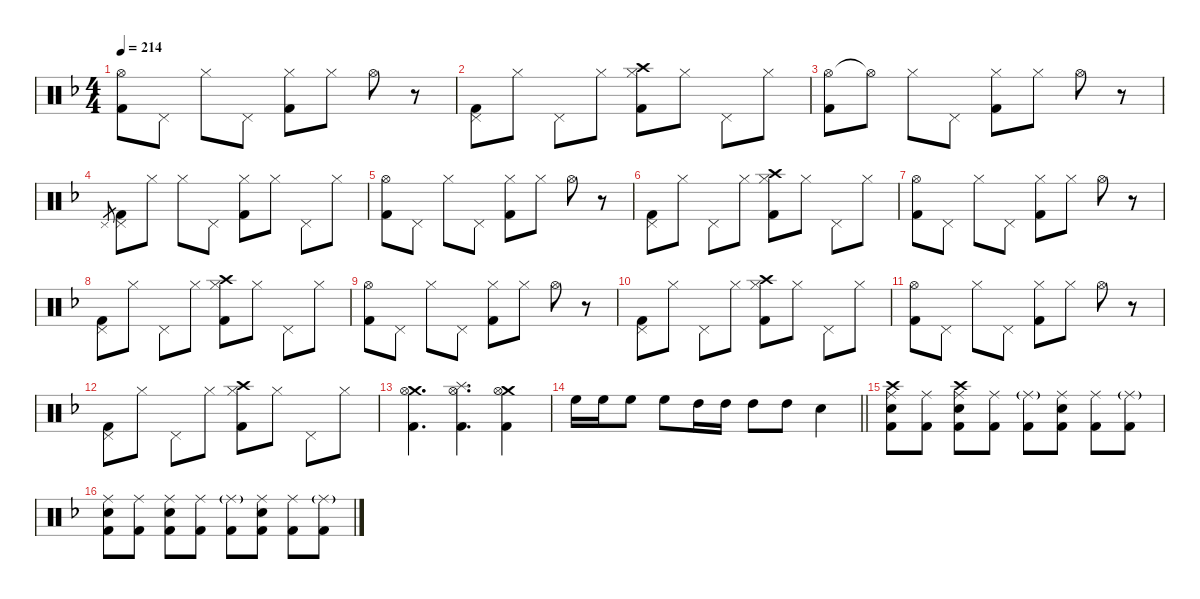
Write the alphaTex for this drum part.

\hideDynamics
\bracketExtendMode nobrackets
\singleTrackTrackNamePolicy hidden
\multiTrackTrackNamePolicy hidden
\firstSystemTrackNameMode fullname
\firstSystemTrackNameOrientation horizontal
\otherSystemsTrackNameOrientation horizontal
\track ("Drumkit" "Drums") {defaultSystemsLayout 4 instrument percussion}
\staff {score}
\articulation defaults
\ts (4 4)
\tempo 214
\clef neutral
\ks dminor
("Hi-Hat (open)"{acc forcenatural} "Kick (hit) 2"{acc forcenatural}).8{dy p beam Down} "Pedal Hi-Hat (hit)"{acc forcenatural}.8{beam Down} "Hi-Hat (closed)"{acc forcenatural}.8{dy mp beam Down} "Pedal Hi-Hat (hit)"{acc forcenatural}.8{beam Down} ("Hi-Hat (closed)"{acc forcenatural} "Kick (hit) 2"{acc forcenatural}).8{beam Down} "Hi-Hat (closed)"{acc forcenatural}.8{beam Down} "Hi-Hat (open)"{acc forcenatural}.8{beam Down} r.8{beam Down} |
("Pedal Hi-Hat (hit)"{acc forcenatural} "Kick (hit) 2"{acc forcenatural}).8{beam Down} "Hi-Hat (closed)"{acc forcenatural}.8{dy p beam Down} "Pedal Hi-Hat (hit)"{acc forcenatural}.8{dy mp beam Down} "Hi-Hat (closed)"{acc forcenatural}.8{beam Down} ("Crash high (hit)"{acc forcenatural} "Hi-Hat (closed)"{acc forcenatural} "Kick (hit) 2"{acc forcenatural}).8{beam Down} "Hi-Hat (closed)"{acc forcenatural}.8{beam Down} "Pedal Hi-Hat (hit)"{acc forcenatural}.8{dy p beam Down} "Hi-Hat (closed)"{acc forcenatural}.8{beam Down} |
("Hi-Hat (open)"{acc forcenatural} "Kick (hit) 2"{acc forcenatural}).8{beam Down} "Hi-Hat (open)"{t acc forcenatural}.8{beam Down} "Hi-Hat (closed)"{acc forcenatural}.8{dy mp beam Down} "Pedal Hi-Hat (hit)"{acc forcenatural}.8{beam Down} ("Hi-Hat (closed)"{acc forcenatural} "Kick (hit) 2"{acc forcenatural}).8{beam Down} "Hi-Hat (closed)"{acc forcenatural}.8{beam Down} "Hi-Hat (open)"{acc forcenatural}.8{beam Down} r.8{beam Down} |
"Pedal Hi-Hat (hit)"{acc forcenatural}.8{gr dy p beam Up} ("Pedal Hi-Hat (hit)"{acc forcenatural} "Kick (hit) 2"{acc forcenatural}).8{beam Down} "Hi-Hat (closed)"{acc forcenatural}.8{beam Down} "Hi-Hat (closed)"{acc forcenatural}.8{dy mp beam Down} "Pedal Hi-Hat (hit)"{acc forcenatural}.8{dy mf beam Down} ("Hi-Hat (closed)"{acc forcenatural} "Kick (hit) 2"{acc forcenatural}).8{dy mp beam Down} "Hi-Hat (closed)"{acc forcenatural}.8{beam Down} "Pedal Hi-Hat (hit)"{acc forcenatural}.8{beam Down} "Hi-Hat (closed)"{acc forcenatural}.8{dy p beam Down} |
("Hi-Hat (open)"{acc forcenatural} "Kick (hit) 2"{acc forcenatural}).8{beam Down} "Pedal Hi-Hat (hit)"{acc forcenatural}.8{beam Down} "Hi-Hat (closed)"{acc forcenatural}.8{dy mp beam Down} "Pedal Hi-Hat (hit)"{acc forcenatural}.8{beam Down} ("Hi-Hat (closed)"{acc forcenatural} "Kick (hit) 2"{acc forcenatural}).8{beam Down} "Hi-Hat (closed)"{acc forcenatural}.8{beam Down} "Hi-Hat (open)"{acc forcenatural}.8{beam Down} r.8{beam Down} |
("Pedal Hi-Hat (hit)"{acc forcenatural} "Kick (hit) 2"{acc forcenatural}).8{beam Down} "Hi-Hat (closed)"{acc forcenatural}.8{dy p beam Down} "Pedal Hi-Hat (hit)"{acc forcenatural}.8{dy mp beam Down} "Hi-Hat (closed)"{acc forcenatural}.8{beam Down} ("Crash high (hit)"{acc forcenatural} "Hi-Hat (closed)"{acc forcenatural} "Kick (hit) 2"{acc forcenatural}).8{beam Down} "Hi-Hat (closed)"{acc forcenatural}.8{beam Down} "Pedal Hi-Hat (hit)"{acc forcenatural}.8{dy p beam Down} "Hi-Hat (closed)"{acc forcenatural}.8{beam Down} |
("Hi-Hat (open)"{acc forcenatural} "Kick (hit) 2"{acc forcenatural}).8{beam Down} "Pedal Hi-Hat (hit)"{acc forcenatural}.8{beam Down} "Hi-Hat (closed)"{acc forcenatural}.8{dy mp beam Down} "Pedal Hi-Hat (hit)"{acc forcenatural}.8{beam Down} ("Hi-Hat (closed)"{acc forcenatural} "Kick (hit) 2"{acc forcenatural}).8{beam Down} "Hi-Hat (closed)"{acc forcenatural}.8{beam Down} "Hi-Hat (open)"{acc forcenatural}.8{beam Down} r.8{beam Down} |
("Pedal Hi-Hat (hit)"{acc forcenatural} "Kick (hit) 2"{acc forcenatural}).8{beam Down} "Hi-Hat (closed)"{acc forcenatural}.8{dy p beam Down} "Pedal Hi-Hat (hit)"{acc forcenatural}.8{dy mp beam Down} "Hi-Hat (closed)"{acc forcenatural}.8{beam Down} ("Crash high (hit)"{acc forcenatural} "Hi-Hat (closed)"{acc forcenatural} "Kick (hit) 2"{acc forcenatural}).8{beam Down} "Hi-Hat (closed)"{acc forcenatural}.8{beam Down} "Pedal Hi-Hat (hit)"{acc forcenatural}.8{dy p beam Down} "Hi-Hat (closed)"{acc forcenatural}.8{beam Down} |
("Hi-Hat (open)"{acc forcenatural} "Kick (hit) 2"{acc forcenatural}).8{beam Down} "Pedal Hi-Hat (hit)"{acc forcenatural}.8{beam Down} "Hi-Hat (closed)"{acc forcenatural}.8{dy mp beam Down} "Pedal Hi-Hat (hit)"{acc forcenatural}.8{beam Down} ("Hi-Hat (closed)"{acc forcenatural} "Kick (hit) 2"{acc forcenatural}).8{beam Down} "Hi-Hat (closed)"{acc forcenatural}.8{beam Down} "Hi-Hat (open)"{acc forcenatural}.8{beam Down} r.8{beam Down} |
("Pedal Hi-Hat (hit)"{acc forcenatural} "Kick (hit) 2"{acc forcenatural}).8{beam Down} "Hi-Hat (closed)"{acc forcenatural}.8{dy p beam Down} "Pedal Hi-Hat (hit)"{acc forcenatural}.8{dy mp beam Down} "Hi-Hat (closed)"{acc forcenatural}.8{beam Down} ("Crash high (hit)"{acc forcenatural} "Hi-Hat (closed)"{acc forcenatural} "Kick (hit) 2"{acc forcenatural}).8{beam Down} "Hi-Hat (closed)"{acc forcenatural}.8{beam Down} "Pedal Hi-Hat (hit)"{acc forcenatural}.8{dy p beam Down} "Hi-Hat (closed)"{acc forcenatural}.8{beam Down} |
("Hi-Hat (open)"{acc forcenatural} "Kick (hit) 2"{acc forcenatural}).8{beam Down} "Pedal Hi-Hat (hit)"{acc forcenatural}.8{beam Down} "Hi-Hat (closed)"{acc forcenatural}.8{dy mp beam Down} "Pedal Hi-Hat (hit)"{acc forcenatural}.8{beam Down} ("Hi-Hat (closed)"{acc forcenatural} "Kick (hit) 2"{acc forcenatural}).8{beam Down} "Hi-Hat (closed)"{acc forcenatural}.8{beam Down} "Hi-Hat (open)"{acc forcenatural}.8{beam Down} r.8{beam Down} |
("Pedal Hi-Hat (hit)"{acc forcenatural} "Kick (hit) 2"{acc forcenatural}).8{beam Down} "Hi-Hat (closed)"{acc forcenatural}.8{dy p beam Down} "Pedal Hi-Hat (hit)"{acc forcenatural}.8{dy mp beam Down} "Hi-Hat (closed)"{acc forcenatural}.8{beam Down} ("Crash high (hit)"{acc forcenatural} "Hi-Hat (closed)"{acc forcenatural} "Kick (hit) 2"{acc forcenatural}).8{beam Down} "Hi-Hat (closed)"{acc forcenatural}.8{beam Down} "Pedal Hi-Hat (hit)"{acc forcenatural}.8{dy p beam Down} "Hi-Hat (closed)"{acc forcenatural}.8{beam Down} |
("Crash medium (hit)"{acc forcenatural} "Hi-Hat (open)"{acc forcenatural} "Kick (hit) 2"{acc forcenatural}).4{d dy f beam Down} ("Splash (hit)"{acc forcenatural} "Hi-Hat (open)"{acc forcenatural} "Kick (hit) 2"{acc forcenatural}).4{d beam Down} ("Crash medium (hit)"{acc forcenatural} "Hi-Hat (open)"{acc forcenatural} "Kick (hit) 2"{acc forcenatural}).4{beam Down} |
\barLineRight lightlight "High Floor Tom (hit)"{acc forcenatural}.16{beam Down} "High Floor Tom (hit)"{acc forcenatural}.16{beam Down} "High Floor Tom (hit)"{acc forcenatural}.8{beam Down} "High Floor Tom (hit)"{acc forcenatural}.8{beam Down} "High Tom (hit)"{acc forcenatural}.16{beam Down} "High Tom (hit)"{acc forcenatural}.16{beam Down} "High Tom (hit)"{acc forcenatural}.8{beam Down} "High Tom (hit)"{acc forcenatural}.8{beam Down} "Snare (hit) 2"{acc forcenatural}.4{beam Down}
|
("Crash high (hit)"{acc forcenatural} "Ride (middle)"{acc forcenatural} "Snare (hit) 2"{acc forcenatural} "Kick (hit) 2"{acc forcenatural}).8{beam Down} ("Ride (middle)"{acc forcenatural} "Kick (hit) 2"{acc forcenatural}).8{dy mf beam Down} ("Crash high (hit)"{acc forcenatural} "Ride (middle)"{acc forcenatural} "Snare (hit) 2"{acc forcenatural} "Kick (hit) 2"{acc forcenatural}).8{dy f beam Down} ("Ride (middle)"{acc forcenatural} "Kick (hit) 2"{acc forcenatural}).8{dy mf beam Down} ("Ride (middle)"{g acc forcenatural} "Kick (hit) 2"{acc forcenatural}).8{dy f beam Down} ("Ride (middle)"{acc forcenatural} "Snare (hit) 2"{acc forcenatural} "Kick (hit) 2"{acc forcenatural}).8{dy mf beam Down} ("Ride (middle)"{acc forcenatural} "Kick (hit) 2"{acc forcenatural}).8{beam Down} ("Ride (middle)"{g acc forcenatural} "Kick (hit) 2"{acc forcenatural}).8{dy f beam Down} |
("Ride (middle)"{acc forcenatural} "Snare (hit) 2"{acc forcenatural} "Kick (hit) 2"{acc forcenatural}).8{dy mf beam Down} ("Ride (middle)"{acc forcenatural} "Kick (hit) 2"{acc forcenatural}).8{beam Down} ("Ride (middle)"{acc forcenatural} "Snare (hit) 2"{acc forcenatural} "Kick (hit) 2"{acc forcenatural}).8{beam Down} ("Ride (middle)"{acc forcenatural} "Kick (hit) 2"{acc forcenatural}).8{beam Down} ("Ride (middle)"{g acc forcenatural} "Kick (hit) 2"{acc forcenatural}).8{dy f beam Down} ("Ride (middle)"{acc forcenatural} "Snare (hit) 2"{acc forcenatural} "Kick (hit) 2"{acc forcenatural}).8{dy mf beam Down} ("Ride (middle)"{acc forcenatural} "Kick (hit) 2"{acc forcenatural}).8{beam Down} ("Ride (middle)"{g acc forcenatural} "Kick (hit) 2"{acc forcenatural}).8{dy f beam Down}
